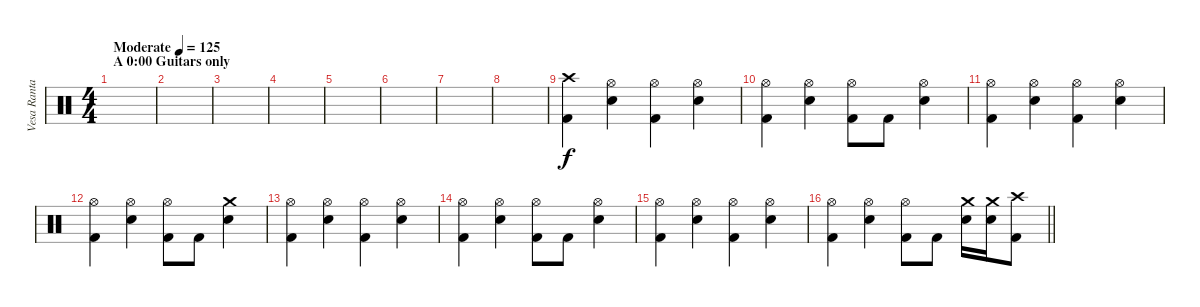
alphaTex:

\track ("Vesa Ranta (drums)" "Vesa Ranta") {instrument percussion}
\staff {score}
\articulation defaults
\ts (4 4)
\section ("" "A 0:00 Guitars only")
\tempo (125 "Moderate")
\clef neutral
\ks c
|
|
|
|
|
|
|
|
("Crash high (hit)" "Kick (hit) 2").4 ("Hi-Hat (open)" "Electric Snare (hit)").4 ("Hi-Hat (open)" "Kick (hit) 2").4 ("Hi-Hat (open)" "Electric Snare (hit)").4 |
("Hi-Hat (open)" "Kick (hit) 2").4 ("Hi-Hat (open)" "Electric Snare (hit)").4 ("Hi-Hat (open)" "Kick (hit) 2").8 "Kick (hit) 2".8 ("Hi-Hat (open)" "Electric Snare (hit)").4 |
("Hi-Hat (open)" "Kick (hit) 2").4 ("Hi-Hat (open)" "Electric Snare (hit)").4 ("Hi-Hat (open)" "Kick (hit) 2").4 ("Hi-Hat (open)" "Electric Snare (hit)").4 |
("Hi-Hat (open)" "Kick (hit) 2").4 ("Hi-Hat (open)" "Electric Snare (hit)").4 ("Hi-Hat (open)" "Kick (hit) 2").8 "Kick (hit) 2".8 ("Crash medium (hit)" "Electric Snare (hit)").4 |
("Hi-Hat (open)" "Kick (hit) 2").4 ("Hi-Hat (open)" "Electric Snare (hit)").4 ("Hi-Hat (open)" "Kick (hit) 2").4 ("Hi-Hat (open)" "Electric Snare (hit)").4 |
("Hi-Hat (open)" "Kick (hit) 2").4 ("Hi-Hat (open)" "Electric Snare (hit)").4 ("Hi-Hat (open)" "Kick (hit) 2").8 "Kick (hit) 2".8 ("Hi-Hat (open)" "Electric Snare (hit)").4 |
("Hi-Hat (open)" "Kick (hit) 2").4 ("Hi-Hat (open)" "Electric Snare (hit)").4 ("Hi-Hat (open)" "Kick (hit) 2").4 ("Hi-Hat (open)" "Electric Snare (hit)").4 |
\barLineRight lightlight
("Hi-Hat (open)" "Kick (hit) 2").4 ("Hi-Hat (open)" "Electric Snare (hit)").4 ("Hi-Hat (open)" "Kick (hit) 2").8 "Kick (hit) 2".8 ("Crash medium (hit)" "Electric Snare (hit)").16 ("Crash medium (hit)" "Electric Snare (hit)").16 ("Crash high (hit)" "Kick (hit) 2").8
